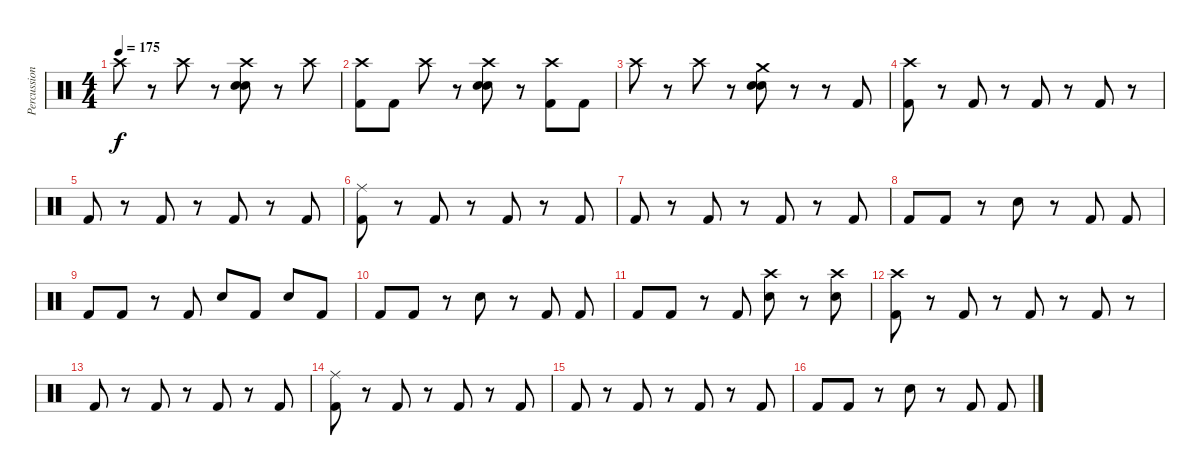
\track ("Percussion" "Percussion") {instrument percussion}
\staff {score}
\articulation defaults
\ts (4 4)
\tempo 175
\clef neutral
\ks c "Crash high (hit)".8{dy f}
r.8 "Crash high (hit)".8 r.8 ("Crash high (hit)" "Electric Snare (hit)" "Electric Snare (hit)").8 r.8 "Crash high (hit)".8 |
("Crash high (hit)" "Kick (hit) 2").8 "Kick (hit) 2".8 "Crash high (hit)".8 r.8 ("Crash high (hit)" "Electric Snare (hit)" "Electric Snare (hit)").8 r.8 ("Crash high (hit)" "Kick (hit) 2").8 "Kick (hit) 2".8 |
"Crash high (hit)".8 r.8 "Crash high (hit)".8 r.8 ("Crash medium (hit)" "Electric Snare (hit)" "Electric Snare (hit)").8 r.8 r.8 "Kick (hit) 2".8 |
("Crash high (hit)" "Kick (hit) 2").8 r.8 "Kick (hit) 2".8 r.8 "Kick (hit) 2".8 r.8 "Kick (hit) 2".8 r.8 |
"Kick (hit) 2".8 r.8 "Kick (hit) 2".8 r.8 "Kick (hit) 2".8 r.8 "Kick (hit) 2".8 |
("Ride (middle)" "Kick (hit) 2").8 r.8 "Kick (hit) 2".8 r.8 "Kick (hit) 2".8 r.8 "Kick (hit) 2".8 |
"Kick (hit) 2".8 r.8 "Kick (hit) 2".8 r.8 "Kick (hit) 2".8 r.8 "Kick (hit) 2".8 |
"Kick (hit) 2".8 "Kick (hit) 2".8 r.8 "Electric Snare (hit)".8 r.8 "Kick (hit) 2".8 "Kick (hit) 2".8 |
"Kick (hit) 2".8 "Kick (hit) 2".8 r.8 "Kick (hit) 2".8 "Electric Snare (hit)".8 "Kick (hit) 2".8 "Electric Snare (hit)".8 "Kick (hit) 2".8 |
"Kick (hit) 2".8 "Kick (hit) 2".8 r.8 "Electric Snare (hit)".8 r.8 "Kick (hit) 2".8 "Kick (hit) 2".8 |
"Kick (hit) 2".8 "Kick (hit) 2".8 r.8 "Kick (hit) 2".8 ("Crash high (hit)" "Electric Snare (hit)").8 r.8 ("Crash high (hit)" "Electric Snare (hit)").8 |
("Crash high (hit)" "Kick (hit) 2").8 r.8 "Kick (hit) 2".8 r.8 "Kick (hit) 2".8 r.8 "Kick (hit) 2".8 r.8 |
"Kick (hit) 2".8 r.8 "Kick (hit) 2".8 r.8 "Kick (hit) 2".8 r.8 "Kick (hit) 2".8 |
("Ride (middle)" "Kick (hit) 2").8 r.8 "Kick (hit) 2".8 r.8 "Kick (hit) 2".8 r.8 "Kick (hit) 2".8 |
"Kick (hit) 2".8 r.8 "Kick (hit) 2".8 r.8 "Kick (hit) 2".8 r.8 "Kick (hit) 2".8 |
"Kick (hit) 2".8 "Kick (hit) 2".8 r.8 "Electric Snare (hit)".8 r.8 "Kick (hit) 2".8 "Kick (hit) 2".8
